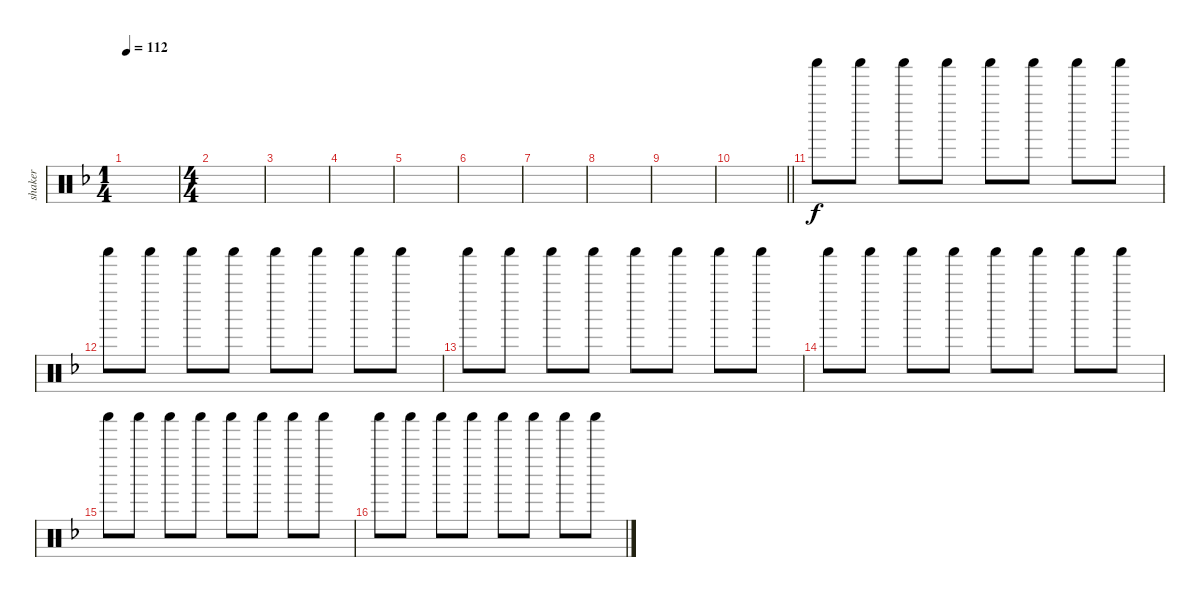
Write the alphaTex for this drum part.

\track ("shaker" "shaker") {instrument percussion}
\staff {score}
\articulation defaults
\ts (1 4)
\tempo 112
\clef neutral
\ks f
|
\ts (4 4)
|
|
|
|
|
|
|
|
\barLineRight lightlight
|
"Shaker (hit)".8 "Shaker (hit)".8 "Shaker (hit)".8 "Shaker (hit)".8 "Shaker (hit)".8 "Shaker (hit)".8 "Shaker (hit)".8 "Shaker (hit)".8 |
"Shaker (hit)".8 "Shaker (hit)".8 "Shaker (hit)".8 "Shaker (hit)".8 "Shaker (hit)".8 "Shaker (hit)".8 "Shaker (hit)".8 "Shaker (hit)".8 |
"Shaker (hit)".8 "Shaker (hit)".8 "Shaker (hit)".8 "Shaker (hit)".8 "Shaker (hit)".8 "Shaker (hit)".8 "Shaker (hit)".8 "Shaker (hit)".8 |
"Shaker (hit)".8 "Shaker (hit)".8 "Shaker (hit)".8 "Shaker (hit)".8 "Shaker (hit)".8 "Shaker (hit)".8 "Shaker (hit)".8 "Shaker (hit)".8 |
"Shaker (hit)".8 "Shaker (hit)".8 "Shaker (hit)".8 "Shaker (hit)".8 "Shaker (hit)".8 "Shaker (hit)".8 "Shaker (hit)".8 "Shaker (hit)".8 |
"Shaker (hit)".8 "Shaker (hit)".8 "Shaker (hit)".8 "Shaker (hit)".8 "Shaker (hit)".8 "Shaker (hit)".8 "Shaker (hit)".8 "Shaker (hit)".8
